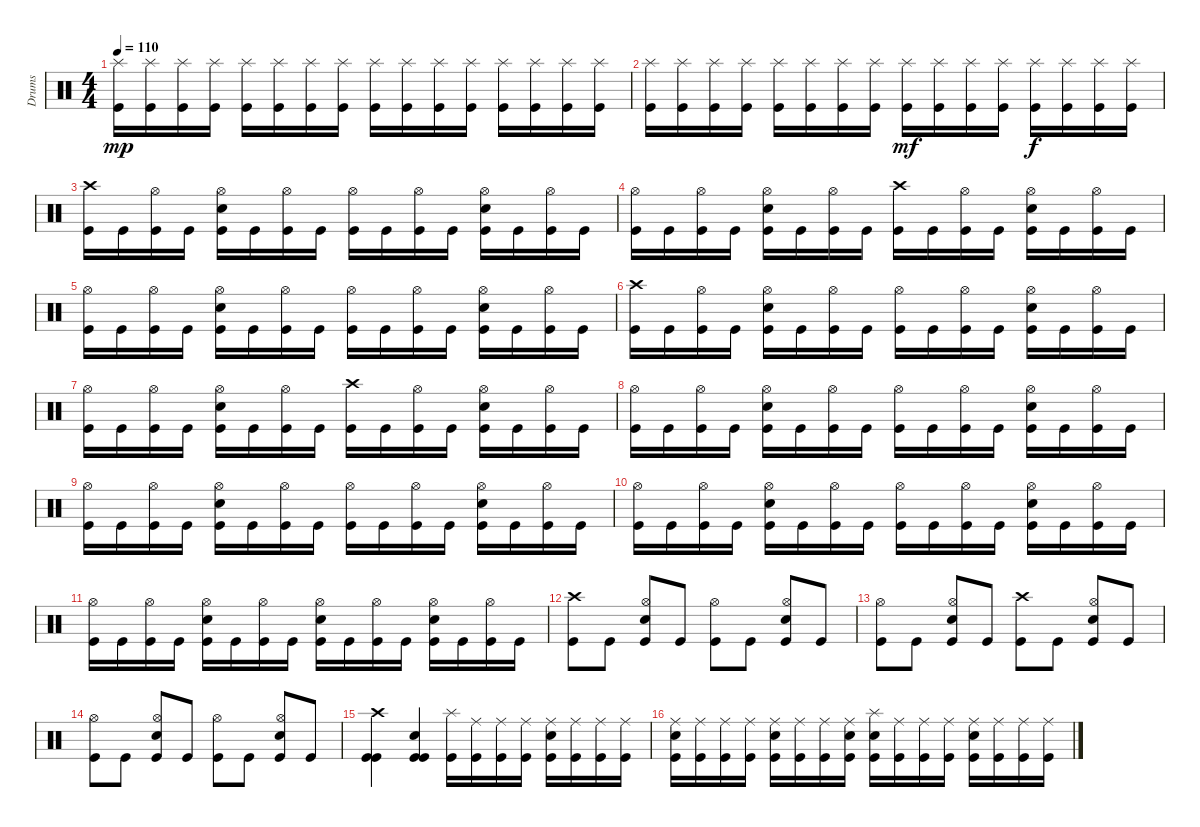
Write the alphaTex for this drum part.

\track ("Drums" "Drums") {instrument percussion}
\staff {score}
\articulation defaults
\ts (4 4)
\tempo 110
\clef neutral
\ks c
("Splash (hit)" "Kick (hit)").16{dy mp} ("Splash (hit)" "Kick (hit)").16 ("Splash (hit)" "Kick (hit)").16 ("Splash (hit)" "Kick (hit)").16 ("Splash (hit)" "Kick (hit)").16 ("Splash (hit)" "Kick (hit)").16 ("Splash (hit)" "Kick (hit)").16 ("Splash (hit)" "Kick (hit)").16 ("Splash (hit)" "Kick (hit)").16 ("Splash (hit)" "Kick (hit)").16 ("Splash (hit)" "Kick (hit)").16 ("Splash (hit)" "Kick (hit)").16 ("Splash (hit)" "Kick (hit)").16 ("Splash (hit)" "Kick (hit)").16 ("Splash (hit)" "Kick (hit)").16 ("Splash (hit)" "Kick (hit)").16 |
("Splash (hit)" "Kick (hit)").16 ("Splash (hit)" "Kick (hit)").16 ("Splash (hit)" "Kick (hit)").16 ("Splash (hit)" "Kick (hit)").16 ("Splash (hit)" "Kick (hit)").16 ("Splash (hit)" "Kick (hit)").16 ("Splash (hit)" "Kick (hit)").16 ("Splash (hit)" "Kick (hit)").16 ("Splash (hit)" "Kick (hit)").16{dy mf} ("Splash (hit)" "Kick (hit)").16 ("Splash (hit)" "Kick (hit)").16 ("Splash (hit)" "Kick (hit)").16 ("Splash (hit)" "Kick (hit)").16{dy f} ("Splash (hit)" "Kick (hit)").16 ("Splash (hit)" "Kick (hit)").16 ("Splash (hit)" "Kick (hit)").16 |
("Crash high (hit)" "Kick (hit)").16 "Kick (hit)".16 ("Hi-Hat (open)" "Kick (hit)").16 "Kick (hit)".16 ("Hi-Hat (open)" "Snare (hit) 2" "Kick (hit)").16 "Kick (hit)".16 ("Hi-Hat (open)" "Kick (hit)").16 "Kick (hit)".16 ("Hi-Hat (open)" "Kick (hit)").16 "Kick (hit)".16 ("Hi-Hat (open)" "Kick (hit)").16 "Kick (hit)".16 ("Hi-Hat (open)" "Snare (hit) 2" "Kick (hit)").16 "Kick (hit)".16 ("Hi-Hat (open)" "Kick (hit)").16 "Kick (hit)".16 |
("Hi-Hat (open)" "Kick (hit)").16 "Kick (hit)".16 ("Hi-Hat (open)" "Kick (hit)").16 "Kick (hit)".16 ("Hi-Hat (open)" "Snare (hit) 2" "Kick (hit)").16 "Kick (hit)".16 ("Hi-Hat (open)" "Kick (hit)").16 "Kick (hit)".16 ("Crash high (hit)" "Kick (hit)").16 "Kick (hit)".16 ("Hi-Hat (open)" "Kick (hit)").16 "Kick (hit)".16 ("Hi-Hat (open)" "Snare (hit) 2" "Kick (hit)").16 "Kick (hit)".16 ("Hi-Hat (open)" "Kick (hit)").16 "Kick (hit)".16 |
("Hi-Hat (open)" "Kick (hit)").16 "Kick (hit)".16 ("Hi-Hat (open)" "Kick (hit)").16 "Kick (hit)".16 ("Hi-Hat (open)" "Snare (hit) 2" "Kick (hit)").16 "Kick (hit)".16 ("Hi-Hat (open)" "Kick (hit)").16 "Kick (hit)".16 ("Hi-Hat (open)" "Kick (hit)").16 "Kick (hit)".16 ("Hi-Hat (open)" "Kick (hit)").16 "Kick (hit)".16 ("Hi-Hat (open)" "Snare (hit) 2" "Kick (hit)").16 "Kick (hit)".16 ("Hi-Hat (open)" "Kick (hit)").16 "Kick (hit)".16 |
("Crash high (hit)" "Kick (hit)").16 "Kick (hit)".16 ("Hi-Hat (open)" "Kick (hit)").16 "Kick (hit)".16 ("Hi-Hat (open)" "Snare (hit) 2" "Kick (hit)").16 "Kick (hit)".16 ("Hi-Hat (open)" "Kick (hit)").16 "Kick (hit)".16 ("Hi-Hat (open)" "Kick (hit)").16 "Kick (hit)".16 ("Hi-Hat (open)" "Kick (hit)").16 "Kick (hit)".16 ("Hi-Hat (open)" "Snare (hit) 2" "Kick (hit)").16 "Kick (hit)".16 ("Hi-Hat (open)" "Kick (hit)").16 "Kick (hit)".16 |
("Hi-Hat (open)" "Kick (hit)").16 "Kick (hit)".16 ("Hi-Hat (open)" "Kick (hit)").16 "Kick (hit)".16 ("Hi-Hat (open)" "Snare (hit) 2" "Kick (hit)").16 "Kick (hit)".16 ("Hi-Hat (open)" "Kick (hit)").16 "Kick (hit)".16 ("Crash high (hit)" "Kick (hit)").16 "Kick (hit)".16 ("Hi-Hat (open)" "Kick (hit)").16 "Kick (hit)".16 ("Hi-Hat (open)" "Snare (hit) 2" "Kick (hit)").16 "Kick (hit)".16 ("Hi-Hat (open)" "Kick (hit)").16 "Kick (hit)".16 |
("Hi-Hat (open)" "Kick (hit)").16 "Kick (hit)".16 ("Hi-Hat (open)" "Kick (hit)").16 "Kick (hit)".16 ("Hi-Hat (open)" "Snare (hit) 2" "Kick (hit)").16 "Kick (hit)".16 ("Hi-Hat (open)" "Kick (hit)").16 "Kick (hit)".16 ("Hi-Hat (open)" "Kick (hit)").16 "Kick (hit)".16 ("Hi-Hat (open)" "Kick (hit)").16 "Kick (hit)".16 ("Hi-Hat (open)" "Snare (hit) 2" "Kick (hit)").16 "Kick (hit)".16 ("Hi-Hat (open)" "Kick (hit)").16 "Kick (hit)".16 |
("Hi-Hat (open)" "Kick (hit)").16 "Kick (hit)".16 ("Hi-Hat (open)" "Kick (hit)").16 "Kick (hit)".16 ("Hi-Hat (open)" "Snare (hit) 2" "Kick (hit)").16 "Kick (hit)".16 ("Hi-Hat (open)" "Kick (hit)").16 "Kick (hit)".16 ("Hi-Hat (open)" "Kick (hit)").16 "Kick (hit)".16 ("Hi-Hat (open)" "Kick (hit)").16 "Kick (hit)".16 ("Hi-Hat (open)" "Snare (hit) 2" "Kick (hit)").16 "Kick (hit)".16 ("Hi-Hat (open)" "Kick (hit)").16 "Kick (hit)".16 |
("Hi-Hat (open)" "Kick (hit)").16 "Kick (hit)".16 ("Hi-Hat (open)" "Kick (hit)").16 "Kick (hit)".16 ("Hi-Hat (open)" "Snare (hit) 2" "Kick (hit)").16 "Kick (hit)".16 ("Hi-Hat (open)" "Kick (hit)").16 "Kick (hit)".16 ("Hi-Hat (open)" "Kick (hit)").16 "Kick (hit)".16 ("Hi-Hat (open)" "Kick (hit)").16 "Kick (hit)".16 ("Hi-Hat (open)" "Snare (hit) 2" "Kick (hit)").16 "Kick (hit)".16 ("Hi-Hat (open)" "Kick (hit)").16 "Kick (hit)".16 |
("Hi-Hat (open)" "Kick (hit)").16 "Kick (hit)".16 ("Hi-Hat (open)" "Kick (hit)").16 "Kick (hit)".16 ("Hi-Hat (open)" "Snare (hit) 2" "Kick (hit)").16 "Kick (hit)".16 ("Hi-Hat (open)" "Kick (hit)").16 "Kick (hit)".16 ("Hi-Hat (open)" "Snare (hit) 2" "Kick (hit)").16 "Kick (hit)".16 ("Hi-Hat (open)" "Kick (hit)").16 "Kick (hit)".16 ("Hi-Hat (open)" "Snare (hit) 2" "Kick (hit)").16 "Kick (hit)".16 ("Hi-Hat (open)" "Kick (hit)").16 "Kick (hit)".16 |
("Crash high (hit)" "Kick (hit)").8 "Kick (hit)".8 ("Hi-Hat (open)" "Snare (hit) 2" "Kick (hit)").8 "Kick (hit)".8 ("Hi-Hat (open)" "Kick (hit)").8 "Kick (hit)".8 ("Hi-Hat (open)" "Snare (hit) 2" "Kick (hit)").8 "Kick (hit)".8 |
("Hi-Hat (open)" "Kick (hit)").8 "Kick (hit)".8 ("Hi-Hat (open)" "Snare (hit) 2" "Kick (hit)").8 "Kick (hit)".8 ("Crash high (hit)" "Kick (hit)").8 "Kick (hit)".8 ("Hi-Hat (open)" "Snare (hit) 2" "Kick (hit)").8 "Kick (hit)".8 |
("Hi-Hat (open)" "Kick (hit)").8 "Kick (hit)".8 ("Hi-Hat (open)" "Snare (hit) 2" "Kick (hit)").8 "Kick (hit)".8 ("Hi-Hat (open)" "Kick (hit)").8 "Kick (hit)".8 ("Hi-Hat (open)" "Snare (hit) 2" "Kick (hit)").8 "Kick (hit)".8 |
("Crash high (hit)" "Kick (hit)" "Kick (hit)").4 ("Snare (hit) 2" "Kick (hit)" "Kick (hit)").4 ("Splash (hit)" "Kick (hit)").16 ("Ride (middle)" "Kick (hit)").16 ("Ride (middle)" "Kick (hit)").16 ("Ride (middle)" "Kick (hit)").16 ("Ride (middle)" "Snare (hit) 2" "Kick (hit)").16 ("Ride (middle)" "Kick (hit)").16 ("Ride (middle)" "Kick (hit)").16 ("Ride (middle)" "Kick (hit)").16 |
("Ride (middle)" "Snare (hit) 2" "Kick (hit)").16 ("Ride (middle)" "Kick (hit)").16 ("Ride (middle)" "Kick (hit)").16 ("Ride (middle)" "Kick (hit)").16 ("Ride (middle)" "Snare (hit) 2" "Kick (hit)").16 ("Ride (middle)" "Kick (hit)").16 ("Ride (middle)" "Kick (hit)").16 ("Ride (middle)" "Snare (hit) 2" "Kick (hit)").16 ("Splash (hit)" "Snare (hit) 2" "Kick (hit)").16 ("Ride (middle)" "Kick (hit)").16 ("Ride (middle)" "Kick (hit)").16 ("Ride (middle)" "Kick (hit)").16 ("Ride (middle)" "Snare (hit) 2" "Kick (hit)").16 ("Ride (middle)" "Kick (hit)").16 ("Ride (middle)" "Kick (hit)").16 ("Ride (middle)" "Kick (hit)").16
